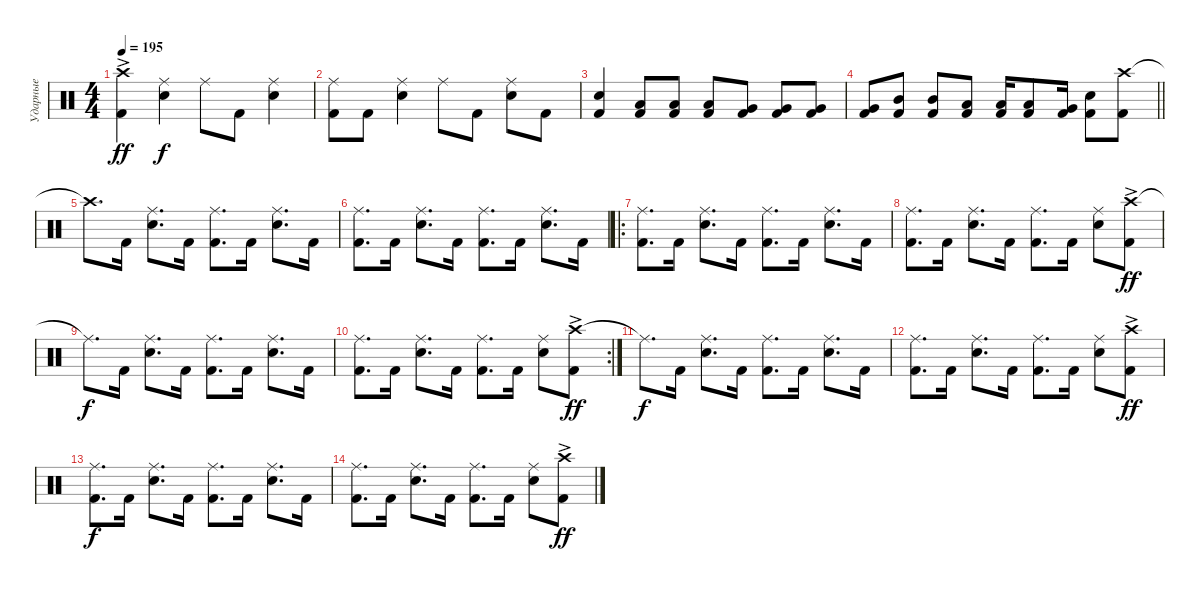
\track ("Ударные" "Ударные") {instrument percussion}
\staff {score}
\articulation defaults
\ts (4 4)
\tempo 195
\clef neutral
\ks c
("Crash high (hit)"{ac} "Kick (hit) 2").4{dy ff} ("Ride (middle)" "Snare (hit) 2").4{dy f} "Ride (middle)".8 "Kick (hit) 2".8 ("Ride (middle)" "Snare (hit) 2").4 |
("Ride (middle)" "Kick (hit) 2").8 "Kick (hit) 2".8 ("Ride (middle)" "Snare (hit) 2").4 "Ride (middle)".8 "Kick (hit) 2".8 ("Ride (middle)" "Snare (hit) 2").8 "Kick (hit) 2".8 |
("Snare (hit) 2" "Kick (hit) 2").4 ("Low Tom (hit)" "Kick (hit) 2").8 ("Low Tom (hit)" "Kick (hit) 2").8 ("Low Tom (hit)" "Kick (hit) 2").8 ("Very Low Tom (hit)" "Kick (hit) 2").8 ("Very Low Tom (hit)" "Kick (hit) 2").8 ("Very Low Tom (hit)" "Kick (hit) 2").8 |
\barLineRight lightlight
("Very Low Tom (hit)" "Kick (hit) 2").8 ("Mid Tom (hit)" "Kick (hit) 2").8 ("Mid Tom (hit)" "Kick (hit) 2").8 ("Low Tom (hit)" "Kick (hit) 2").8 ("Low Tom (hit)" "Kick (hit) 2").16 ("Low Tom (hit)" "Kick (hit) 2").8 ("Very Low Tom (hit)" "Kick (hit) 2").16 ("Snare (hit) 2" "Kick (hit) 2").8 ("Crash high (hit)" "Kick (hit) 2").8 |
"Crash high (hit)"{t}.8{d} "Kick (hit) 2".16 ("Ride (middle)" "Snare (hit) 2").8{d} "Kick (hit) 2".16 ("Ride (middle)" "Kick (hit) 2").8{d} "Kick (hit) 2".16 ("Ride (middle)" "Snare (hit) 2").8{d} "Kick (hit) 2".16 |
("Ride (middle)" "Kick (hit) 2").8{d} "Kick (hit) 2".16 ("Ride (middle)" "Snare (hit) 2").8{d} "Kick (hit) 2".16 ("Ride (middle)" "Kick (hit) 2").8{d} "Kick (hit) 2".16 ("Ride (middle)" "Snare (hit) 2").8{d} "Kick (hit) 2".16 |
\ro
("Ride (middle)" "Kick (hit) 2").8{d} "Kick (hit) 2".16 ("Ride (middle)" "Snare (hit) 2").8{d} "Kick (hit) 2".16 ("Ride (middle)" "Kick (hit) 2").8{d} "Kick (hit) 2".16 ("Ride (middle)" "Snare (hit) 2").8{d} "Kick (hit) 2".16 |
("Ride (middle)" "Kick (hit) 2").8{d} "Kick (hit) 2".16 ("Ride (middle)" "Snare (hit) 2").8{d} "Kick (hit) 2".16 ("Ride (middle)" "Kick (hit) 2").8{d} "Kick (hit) 2".16 ("Ride (middle)" "Snare (hit) 2").8 ("Crash high (hit)"{ac} "Kick (hit) 2").8{dy ff} |
"Ride (middle)"{t}.8{d dy f} "Kick (hit) 2".16 ("Ride (middle)" "Snare (hit) 2").8{d} "Kick (hit) 2".16 ("Ride (middle)" "Kick (hit) 2").8{d} "Kick (hit) 2".16 ("Ride (middle)" "Snare (hit) 2").8{d} "Kick (hit) 2".16 |
\rc 2
("Ride (middle)" "Kick (hit) 2").8{d} "Kick (hit) 2".16 ("Ride (middle)" "Snare (hit) 2").8{d} "Kick (hit) 2".16 ("Ride (middle)" "Kick (hit) 2").8{d} "Kick (hit) 2".16 ("Ride (middle)" "Snare (hit) 2").8 ("Crash high (hit)"{ac} "Kick (hit) 2").8{dy ff} |
"Ride (middle)"{t}.8{d dy f} "Kick (hit) 2".16 ("Ride (middle)" "Snare (hit) 2").8{d} "Kick (hit) 2".16 ("Ride (middle)" "Kick (hit) 2").8{d} "Kick (hit) 2".16 ("Ride (middle)" "Snare (hit) 2").8{d} "Kick (hit) 2".16 |
("Ride (middle)" "Kick (hit) 2").8{d} "Kick (hit) 2".16 ("Ride (middle)" "Snare (hit) 2").8{d} "Kick (hit) 2".16 ("Ride (middle)" "Kick (hit) 2").8{d} "Kick (hit) 2".16 ("Ride (middle)" "Snare (hit) 2").8 ("Crash high (hit)"{ac} "Kick (hit) 2").8{dy ff} |
("Ride (middle)" "Kick (hit) 2").8{d dy f} "Kick (hit) 2".16 ("Ride (middle)" "Snare (hit) 2").8{d} "Kick (hit) 2".16 ("Ride (middle)" "Kick (hit) 2").8{d} "Kick (hit) 2".16 ("Ride (middle)" "Snare (hit) 2").8{d} "Kick (hit) 2".16 |
("Ride (middle)" "Kick (hit) 2").8{d} "Kick (hit) 2".16 ("Ride (middle)" "Snare (hit) 2").8{d} "Kick (hit) 2".16 ("Ride (middle)" "Kick (hit) 2").8{d} "Kick (hit) 2".16 ("Ride (middle)" "Snare (hit) 2").8 ("Crash high (hit)"{ac} "Kick (hit) 2").8{dy ff}
